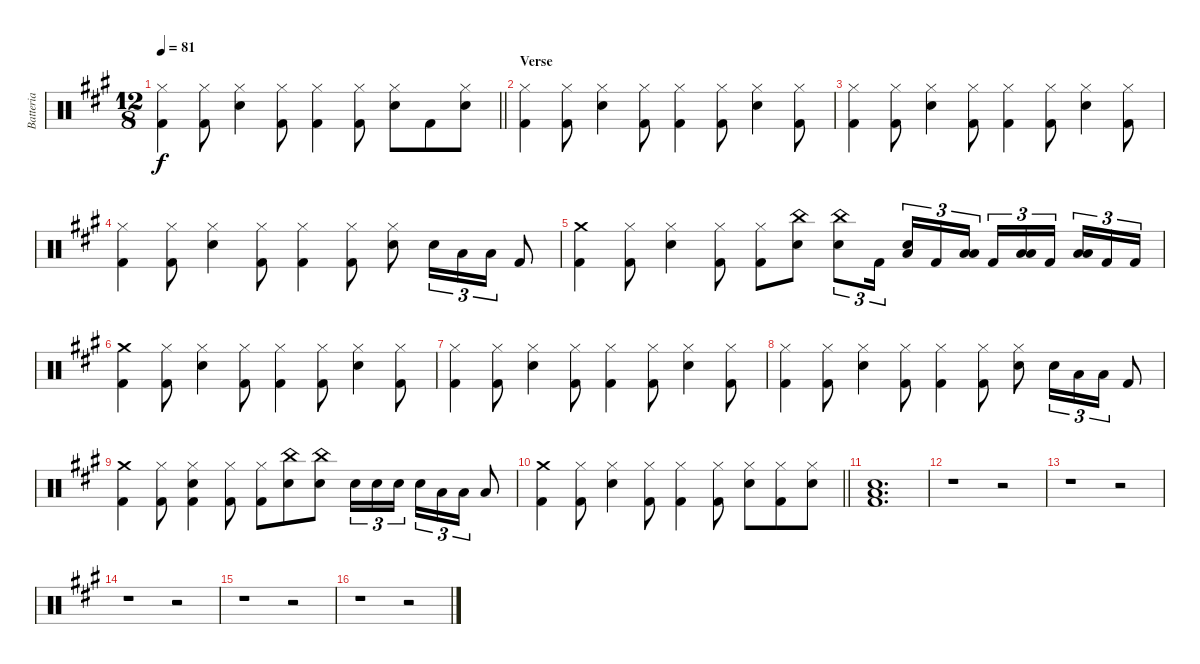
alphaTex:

\track ("Batteria" "Batteria") {instrument percussion}
\staff {score}
\articulation defaults
\ts (12 8)
\tempo 81
\clef neutral
\barLineRight lightlight
\ks a
("Hi-Hat (closed)" "Kick (hit) 2").4{dy f} ("Hi-Hat (closed)" "Kick (hit) 2").8 ("Electric Snare (hit)" "Hi-Hat (closed)").4 ("Hi-Hat (closed)" "Kick (hit) 2").8 ("Hi-Hat (closed)" "Kick (hit) 2").4 ("Hi-Hat (closed)" "Kick (hit) 2").8 ("Electric Snare (hit)" "Hi-Hat (closed)").8 "Kick (hit) 2".8 ("Electric Snare (hit)" "Hi-Hat (closed)").8 |
\section ("" "Verse")
("Hi-Hat (closed)" "Kick (hit) 2").4 ("Hi-Hat (closed)" "Kick (hit) 2").8 ("Electric Snare (hit)" "Hi-Hat (closed)").4 ("Hi-Hat (closed)" "Kick (hit) 2").8 ("Hi-Hat (closed)" "Kick (hit) 2").4 ("Hi-Hat (closed)" "Kick (hit) 2").8 ("Electric Snare (hit)" "Hi-Hat (closed)").4 ("Hi-Hat (closed)" "Kick (hit) 2").8 |
("Hi-Hat (closed)" "Kick (hit) 2").4 ("Hi-Hat (closed)" "Kick (hit) 2").8 ("Electric Snare (hit)" "Hi-Hat (closed)").4 ("Hi-Hat (closed)" "Kick (hit) 2").8 ("Hi-Hat (closed)" "Kick (hit) 2").4 ("Hi-Hat (closed)" "Kick (hit) 2").8 ("Electric Snare (hit)" "Hi-Hat (closed)").4 ("Hi-Hat (closed)" "Kick (hit) 2").8 |
("Hi-Hat (closed)" "Kick (hit) 2").4 ("Hi-Hat (closed)" "Kick (hit) 2").8 ("Electric Snare (hit)" "Hi-Hat (closed)").4 ("Hi-Hat (closed)" "Kick (hit) 2").8 ("Hi-Hat (closed)" "Kick (hit) 2").4 ("Hi-Hat (closed)" "Kick (hit) 2").8 ("Electric Snare (hit)" "Hi-Hat (closed)").8 "Electric Snare (hit)".16{tu (3 2)} "Low Tom (hit)".16{tu (3 2)} "Low Floor Tom (hit)".16{tu (3 2)} "Kick (hit) 2".8 |
("Crash medium (hit)" "Kick (hit) 2").4 ("Hi-Hat (closed)" "Kick (hit) 2").8 ("Electric Snare (hit)" "Hi-Hat (closed)").4 ("Hi-Hat (closed)" "Kick (hit) 2").8 ("Hi-Hat (closed)" "Kick (hit) 2").8 ("China (hit)" "Electric Snare (hit)").8 ("China (hit)" "Electric Snare (hit)").8{tu (3 2)} "Kick (hit) 2".16{tu (3 2)} ("Electric Snare (hit)" "Low Tom (hit)").16{tu (3 2)} "Kick (hit) 2".16{tu (3 2)} ("Low Floor Tom (hit)" "Low Tom (hit)").16{tu (3 2) beam splitsecondary} "Kick (hit) 2".16{tu (3 2)} ("Low Floor Tom (hit)" "Low Tom (hit)").16{tu (3 2)} "Kick (hit) 2".16{tu (3 2) beam splitsecondary} ("Low Floor Tom (hit)" "Low Tom (hit)").16{tu (3 2)} "Kick (hit) 2".16{tu (3 2)} "Kick (hit) 2".16{tu (3 2)} |
("Crash medium (hit)" "Kick (hit) 2").4 ("Hi-Hat (closed)" "Kick (hit) 2").8 ("Electric Snare (hit)" "Hi-Hat (closed)").4 ("Hi-Hat (closed)" "Kick (hit) 2").8 ("Hi-Hat (closed)" "Kick (hit) 2").4 ("Hi-Hat (closed)" "Kick (hit) 2").8 ("Electric Snare (hit)" "Hi-Hat (closed)").4 ("Hi-Hat (closed)" "Kick (hit) 2").8 |
("Hi-Hat (closed)" "Kick (hit) 2").4 ("Hi-Hat (closed)" "Kick (hit) 2").8 ("Electric Snare (hit)" "Hi-Hat (closed)").4 ("Hi-Hat (closed)" "Kick (hit) 2").8 ("Hi-Hat (closed)" "Kick (hit) 2").4 ("Hi-Hat (closed)" "Kick (hit) 2").8 ("Electric Snare (hit)" "Hi-Hat (closed)").4 ("Hi-Hat (closed)" "Kick (hit) 2").8 |
("Hi-Hat (closed)" "Kick (hit) 2").4 ("Hi-Hat (closed)" "Kick (hit) 2").8 ("Electric Snare (hit)" "Hi-Hat (closed)").4 ("Hi-Hat (closed)" "Kick (hit) 2").8 ("Hi-Hat (closed)" "Kick (hit) 2").4 ("Hi-Hat (closed)" "Kick (hit) 2").8 ("Electric Snare (hit)" "Hi-Hat (closed)").8 "Electric Snare (hit)".16{tu (3 2)} "Low Tom (hit)".16{tu (3 2)} "Low Floor Tom (hit)".16{tu (3 2)} "Kick (hit) 2".8 |
("Crash medium (hit)" "Kick (hit) 2").4 ("Hi-Hat (closed)" "Kick (hit) 2").8 ("Electric Snare (hit)" "Hi-Hat (closed)" "Kick (hit) 2").4 ("Hi-Hat (closed)" "Kick (hit) 2").8 ("Hi-Hat (closed)" "Kick (hit) 2").8 ("China (hit)" "Electric Snare (hit)").8 ("China (hit)" "Electric Snare (hit)").8 "Electric Snare (hit)".16{tu (3 2)} "Electric Snare (hit)".16{tu (3 2)} "Electric Snare (hit)".16{tu (3 2) beam splitsecondary} "Electric Snare (hit)".16{tu (3 2)} "Low Tom (hit)".16{tu (3 2)} "Low Tom (hit)".16{tu (3 2)} "Low Floor Tom (hit)".8 |
\barLineRight lightlight
("Crash medium (hit)" "Kick (hit) 2").4 ("Hi-Hat (closed)" "Kick (hit) 2").8 ("Electric Snare (hit)" "Hi-Hat (closed)").4 ("Hi-Hat (closed)" "Kick (hit) 2").8 ("Hi-Hat (closed)" "Kick (hit) 2").4 ("Hi-Hat (closed)" "Kick (hit) 2").8 ("Electric Snare (hit)" "Hi-Hat (closed)").8 ("Hi-Hat (closed)" "Kick (hit) 2").8 ("Electric Snare (hit)" "Hi-Hat (closed)").8 |
("Electric Snare (hit)" "Low Tom (hit)" "Kick (hit) 2").1{d} |
r.1 r.2 |
r.1 r.2 |
r.1 r.2 |
r.1 r.2 |
r.1 r.2
